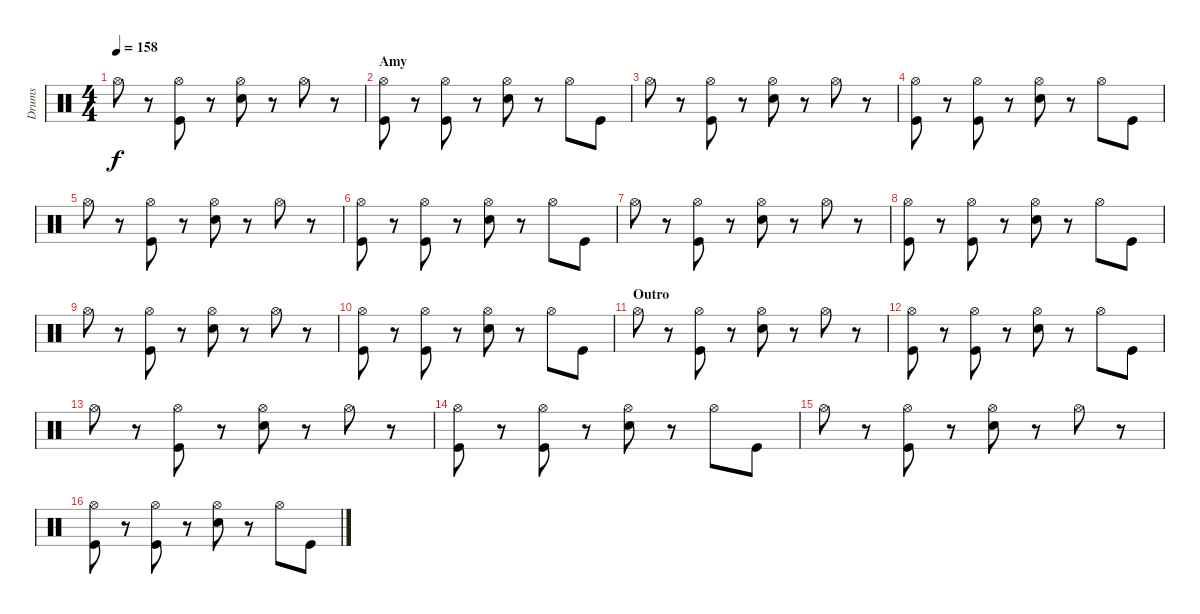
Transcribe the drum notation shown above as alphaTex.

\track ("Drums" "Drums") {instrument percussion}
\staff {score}
\articulation defaults
\ts (4 4)
\tempo 158
\clef neutral
\ks c "Hi-Hat (open)".8{dy f}
r.8 ("Hi-Hat (open)" "Kick (hit)").8 r.8 ("Hi-Hat (open)" "Snare (hit) 2").8 r.8 "Hi-Hat (open)".8 r.8 |
\section ("" "Amy")
("Hi-Hat (open)" "Kick (hit)").8 r.8 ("Hi-Hat (open)" "Kick (hit)").8 r.8 ("Hi-Hat (open)" "Snare (hit) 2").8 r.8 "Hi-Hat (open)".8 "Kick (hit)".8 |
"Hi-Hat (open)".8 r.8 ("Hi-Hat (open)" "Kick (hit)").8 r.8 ("Hi-Hat (open)" "Snare (hit) 2").8 r.8 "Hi-Hat (open)".8 r.8 |
("Hi-Hat (open)" "Kick (hit)").8 r.8 ("Hi-Hat (open)" "Kick (hit)").8 r.8 ("Hi-Hat (open)" "Snare (hit) 2").8 r.8 "Hi-Hat (open)".8 "Kick (hit)".8 |
"Hi-Hat (open)".8 r.8 ("Hi-Hat (open)" "Kick (hit)").8 r.8 ("Hi-Hat (open)" "Snare (hit) 2").8 r.8 "Hi-Hat (open)".8 r.8 |
("Hi-Hat (open)" "Kick (hit)").8 r.8 ("Hi-Hat (open)" "Kick (hit)").8 r.8 ("Hi-Hat (open)" "Snare (hit) 2").8 r.8 "Hi-Hat (open)".8 "Kick (hit)".8 |
"Hi-Hat (open)".8 r.8 ("Hi-Hat (open)" "Kick (hit)").8 r.8 ("Hi-Hat (open)" "Snare (hit) 2").8 r.8 "Hi-Hat (open)".8 r.8 |
("Hi-Hat (open)" "Kick (hit)").8 r.8 ("Hi-Hat (open)" "Kick (hit)").8 r.8 ("Hi-Hat (open)" "Snare (hit) 2").8 r.8 "Hi-Hat (open)".8 "Kick (hit)".8 |
"Hi-Hat (open)".8 r.8 ("Hi-Hat (open)" "Kick (hit)").8 r.8 ("Hi-Hat (open)" "Snare (hit) 2").8 r.8 "Hi-Hat (open)".8 r.8 |
("Hi-Hat (open)" "Kick (hit)").8 r.8 ("Hi-Hat (open)" "Kick (hit)").8 r.8 ("Hi-Hat (open)" "Snare (hit) 2").8 r.8 "Hi-Hat (open)".8 "Kick (hit)".8 |
\section ("" "Outro")
"Hi-Hat (open)".8 r.8 ("Hi-Hat (open)" "Kick (hit)").8 r.8 ("Hi-Hat (open)" "Snare (hit) 2").8 r.8 "Hi-Hat (open)".8 r.8 |
("Hi-Hat (open)" "Kick (hit)").8 r.8 ("Hi-Hat (open)" "Kick (hit)").8 r.8 ("Hi-Hat (open)" "Snare (hit) 2").8 r.8 "Hi-Hat (open)".8 "Kick (hit)".8 |
"Hi-Hat (open)".8 r.8 ("Hi-Hat (open)" "Kick (hit)").8 r.8 ("Hi-Hat (open)" "Snare (hit) 2").8 r.8 "Hi-Hat (open)".8 r.8 |
("Hi-Hat (open)" "Kick (hit)").8 r.8 ("Hi-Hat (open)" "Kick (hit)").8 r.8 ("Hi-Hat (open)" "Snare (hit) 2").8 r.8 "Hi-Hat (open)".8 "Kick (hit)".8 |
"Hi-Hat (open)".8 r.8 ("Hi-Hat (open)" "Kick (hit)").8 r.8 ("Hi-Hat (open)" "Snare (hit) 2").8 r.8 "Hi-Hat (open)".8 r.8 |
("Hi-Hat (open)" "Kick (hit)").8 r.8 ("Hi-Hat (open)" "Kick (hit)").8 r.8 ("Hi-Hat (open)" "Snare (hit) 2").8 r.8 "Hi-Hat (open)".8 "Kick (hit)".8
